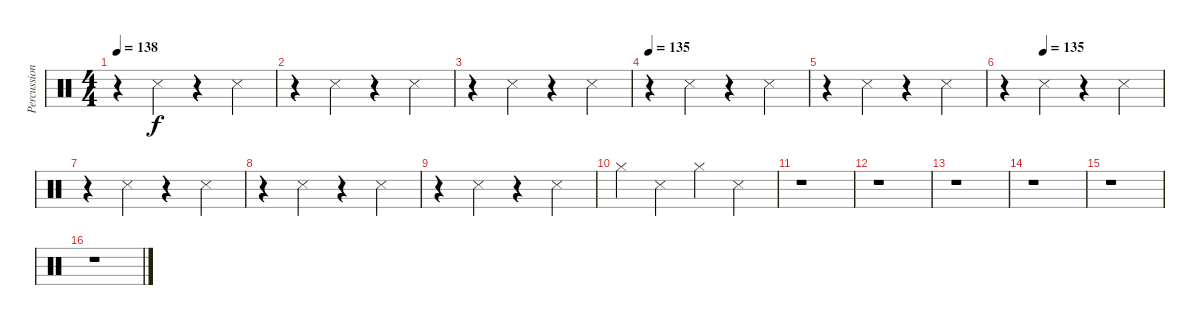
\track ("Percussion" "Percussion") {instrument percussion}
\staff {score}
\articulation defaults
\ts (4 4)
\tempo 138
\clef neutral
\ks c
r.4{dy f} "Metronome (hit)".4 r.4 "Metronome (hit)".4 |
r.4 "Metronome (hit)".4 r.4 "Metronome (hit)".4 |
r.4 "Metronome (hit)".4 r.4 "Metronome (hit)".4 |
\tempo 135
r.4 "Metronome (hit)".4 r.4 "Metronome (hit)".4 |
r.4 "Metronome (hit)".4 r.4 "Metronome (hit)".4 |
\tempo (135 0.25)
r.4 "Metronome (hit)".4 r.4 "Metronome (hit)".4 |
r.4 "Metronome (hit)".4 r.4 "Metronome (hit)".4 |
r.4 "Metronome (hit)".4 r.4 "Metronome (hit)".4 |
r.4 "Metronome (hit)".4 r.4 "Metronome (hit)".4 |
"Hi-Hat (closed)".4 "Metronome (hit)".4 "Hi-Hat (closed)".4 "Metronome (hit)".4 |
r.1 |
r.1 |
r.1 |
r.1 |
r.1 |
r.1
